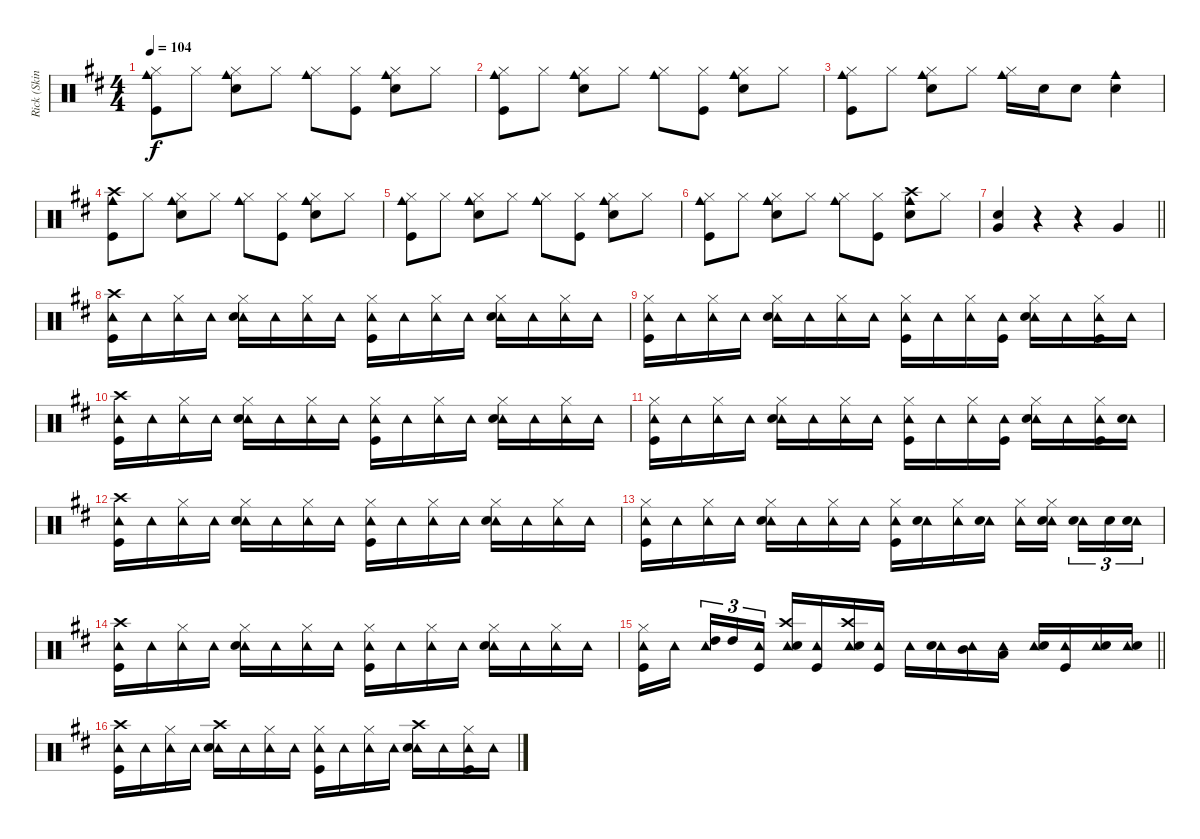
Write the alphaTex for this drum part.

\track ("Rick (Skins)" "Rick (Skin") {instrument percussion}
\staff {score}
\articulation defaults
\ts (4 4)
\tempo 104
\clef neutral
\ks d
("Cowbell medium (hit)" "Hi-Hat (closed)" "Kick (hit)").8{dy f} "Hi-Hat (closed)".8 ("Cowbell medium (hit)" "Hi-Hat (closed)" "Snare (hit) 2").8 "Hi-Hat (closed)".8 ("Cowbell medium (hit)" "Hi-Hat (closed)").8 ("Hi-Hat (closed)" "Kick (hit)").8 ("Cowbell medium (hit)" "Hi-Hat (closed)" "Snare (hit) 2").8 "Hi-Hat (closed)".8 |
("Cowbell medium (hit)" "Hi-Hat (closed)" "Kick (hit)").8 "Hi-Hat (closed)".8 ("Cowbell medium (hit)" "Hi-Hat (closed)" "Snare (hit) 2").8 "Hi-Hat (closed)".8 ("Cowbell medium (hit)" "Hi-Hat (closed)").8 ("Hi-Hat (closed)" "Kick (hit)").8 ("Cowbell medium (hit)" "Hi-Hat (closed)" "Snare (hit) 2").8 "Hi-Hat (closed)".8 |
("Cowbell medium (hit)" "Hi-Hat (closed)" "Kick (hit)").8 "Hi-Hat (closed)".8 ("Cowbell medium (hit)" "Hi-Hat (closed)" "Snare (hit) 2").8 "Hi-Hat (closed)".8 ("Cowbell medium (hit)" "Hi-Hat (closed)").16 "Snare (hit) 2".16 "Snare (hit) 2".8 ("Cowbell medium (hit)" "Snare (hit) 2").4 |
("Cowbell medium (hit)" "Crash high (hit)" "Kick (hit)").8 "Hi-Hat (closed)".8 ("Cowbell medium (hit)" "Hi-Hat (closed)" "Snare (hit) 2").8 "Hi-Hat (closed)".8 ("Cowbell medium (hit)" "Hi-Hat (closed)").8 ("Hi-Hat (closed)" "Kick (hit)").8 ("Cowbell medium (hit)" "Hi-Hat (closed)" "Snare (hit) 2").8 "Hi-Hat (closed)".8 |
("Cowbell medium (hit)" "Hi-Hat (closed)" "Kick (hit)").8 "Hi-Hat (closed)".8 ("Cowbell medium (hit)" "Hi-Hat (closed)" "Snare (hit) 2").8 "Hi-Hat (closed)".8 ("Cowbell medium (hit)" "Hi-Hat (closed)").8 ("Hi-Hat (closed)" "Kick (hit)").8 ("Cowbell medium (hit)" "Hi-Hat (closed)" "Snare (hit) 2").8 "Hi-Hat (closed)".8 |
("Cowbell medium (hit)" "Hi-Hat (closed)" "Kick (hit)").8 "Hi-Hat (closed)".8 ("Cowbell medium (hit)" "Hi-Hat (closed)" "Snare (hit) 2").8 "Hi-Hat (closed)".8 ("Cowbell medium (hit)" "Hi-Hat (closed)").8 ("Hi-Hat (closed)" "Kick (hit)").8 ("Cowbell medium (hit)" "Crash high (hit)" "Snare (hit) 2").8 "Hi-Hat (closed)".8 |
\barLineRight lightlight
("Snare (hit) 2" "Very Low Tom (hit)").4 r.4 r.4 "Very Low Tom (hit)".4 |
("Tambourine (hit)" "Crash high (hit)" "Kick (hit)").16 "Tambourine (hit)".16 ("Tambourine (hit)" "Hi-Hat (closed)").16 "Tambourine (hit)".16 ("Tambourine (hit)" "Hi-Hat (closed)" "Snare (hit) 2").16 "Tambourine (hit)".16 ("Tambourine (hit)" "Hi-Hat (closed)").16 "Tambourine (hit)".16 ("Tambourine (hit)" "Hi-Hat (closed)" "Kick (hit)").16 "Tambourine (hit)".16 ("Tambourine (hit)" "Hi-Hat (closed)").16 "Tambourine (hit)".16 ("Tambourine (hit)" "Hi-Hat (closed)" "Snare (hit) 2").16 "Tambourine (hit)".16 ("Tambourine (hit)" "Hi-Hat (closed)").16 "Tambourine (hit)".16 |
("Tambourine (hit)" "Hi-Hat (closed)" "Kick (hit)").16 "Tambourine (hit)".16 ("Tambourine (hit)" "Hi-Hat (closed)").16 "Tambourine (hit)".16 ("Tambourine (hit)" "Hi-Hat (closed)" "Snare (hit) 2").16 "Tambourine (hit)".16 ("Tambourine (hit)" "Hi-Hat (closed)").16 "Tambourine (hit)".16 ("Tambourine (hit)" "Hi-Hat (closed)" "Kick (hit)").16 "Tambourine (hit)".16 ("Tambourine (hit)" "Hi-Hat (closed)").16 ("Tambourine (hit)" "Kick (hit)").16 ("Tambourine (hit)" "Hi-Hat (closed)" "Snare (hit) 2").16 "Tambourine (hit)".16 ("Tambourine (hit)" "Hi-Hat (closed)" "Kick (hit)").16 "Tambourine (hit)".16 |
("Tambourine (hit)" "Crash high (hit)" "Kick (hit)").16 "Tambourine (hit)".16 ("Tambourine (hit)" "Hi-Hat (closed)").16 "Tambourine (hit)".16 ("Tambourine (hit)" "Hi-Hat (closed)" "Snare (hit) 2").16 "Tambourine (hit)".16 ("Tambourine (hit)" "Hi-Hat (closed)").16 "Tambourine (hit)".16 ("Tambourine (hit)" "Hi-Hat (closed)" "Kick (hit)").16 "Tambourine (hit)".16 ("Tambourine (hit)" "Hi-Hat (closed)").16 "Tambourine (hit)".16 ("Tambourine (hit)" "Hi-Hat (closed)" "Snare (hit) 2").16 "Tambourine (hit)".16 ("Tambourine (hit)" "Hi-Hat (closed)").16 "Tambourine (hit)".16 |
("Tambourine (hit)" "Hi-Hat (closed)" "Kick (hit)").16 "Tambourine (hit)".16 ("Tambourine (hit)" "Hi-Hat (closed)").16 "Tambourine (hit)".16 ("Tambourine (hit)" "Hi-Hat (closed)" "Snare (hit) 2").16 "Tambourine (hit)".16 ("Tambourine (hit)" "Hi-Hat (closed)").16 "Tambourine (hit)".16 ("Tambourine (hit)" "Hi-Hat (closed)" "Kick (hit)").16 "Tambourine (hit)".16 ("Tambourine (hit)" "Hi-Hat (closed)").16 ("Tambourine (hit)" "Kick (hit)").16 ("Tambourine (hit)" "Hi-Hat (closed)" "Snare (hit) 2").16 "Tambourine (hit)".16 ("Tambourine (hit)" "Hi-Hat (closed)" "Kick (hit)").16 ("Tambourine (hit)" "Snare (hit) 2").16 |
("Tambourine (hit)" "Crash high (hit)" "Kick (hit)").16 "Tambourine (hit)".16 ("Tambourine (hit)" "Hi-Hat (closed)").16 "Tambourine (hit)".16 ("Tambourine (hit)" "Hi-Hat (closed)" "Snare (hit) 2").16 "Tambourine (hit)".16 ("Tambourine (hit)" "Hi-Hat (closed)").16 "Tambourine (hit)".16 ("Tambourine (hit)" "Hi-Hat (closed)" "Kick (hit)").16 "Tambourine (hit)".16 ("Tambourine (hit)" "Hi-Hat (closed)").16 "Tambourine (hit)".16 ("Tambourine (hit)" "Hi-Hat (closed)" "Snare (hit) 2").16 "Tambourine (hit)".16 ("Tambourine (hit)" "Hi-Hat (closed)").16 "Tambourine (hit)".16 |
("Tambourine (hit)" "Hi-Hat (closed)" "Kick (hit)").16 "Tambourine (hit)".16 ("Tambourine (hit)" "Hi-Hat (closed)").16 "Tambourine (hit)".16 ("Tambourine (hit)" "Hi-Hat (closed)" "Snare (hit) 2").16 "Tambourine (hit)".16 ("Tambourine (hit)" "Hi-Hat (closed)").16 "Tambourine (hit)".16 ("Tambourine (hit)" "Hi-Hat (closed)" "Kick (hit)").16 ("Tambourine (hit)" "Snare (hit) 2").16 ("Tambourine (hit)" "Hi-Hat (closed)").16 ("Tambourine (hit)" "Snare (hit) 2").16 ("Tambourine (hit)" "Hi-Hat (closed)").16 ("Tambourine (hit)" "Hi-Hat (closed)" "Snare (hit) 2").16{beam splitsecondary} ("Tambourine (hit)" "Snare (hit) 2").16{tu (3 2)} "Snare (hit) 2".16{tu (3 2)} ("Tambourine (hit)" "Snare (hit) 2").16{tu (3 2)} |
("Tambourine (hit)" "Crash high (hit)" "Kick (hit)").16 "Tambourine (hit)".16 ("Tambourine (hit)" "Hi-Hat (closed)").16 "Tambourine (hit)".16 ("Tambourine (hit)" "Hi-Hat (closed)" "Snare (hit) 2").16 "Tambourine (hit)".16 ("Tambourine (hit)" "Hi-Hat (closed)").16 "Tambourine (hit)".16 ("Tambourine (hit)" "Hi-Hat (closed)" "Kick (hit)").16 "Tambourine (hit)".16 ("Tambourine (hit)" "Hi-Hat (closed)").16 "Tambourine (hit)".16 ("Tambourine (hit)" "Hi-Hat (closed)" "Snare (hit) 2").16 "Tambourine (hit)".16 ("Tambourine (hit)" "Hi-Hat (closed)").16 "Tambourine (hit)".16 |
\barLineRight lightlight
("Tambourine (hit)" "Hi-Hat (closed)" "Kick (hit)").16 "Tambourine (hit)".16{beam splitsecondary} ("Tambourine (hit)" "High Tom (hit)").16{tu (3 2)} "High Tom (hit)".16{tu (3 2)} ("Tambourine (hit)" "Kick (hit)").16{tu (3 2)} ("Tambourine (hit)" "Crash high (hit)" "Snare (hit) 2").16 ("Tambourine (hit)" "Kick (hit)").16 ("Tambourine (hit)" "Crash high (hit)" "Snare (hit) 2").16 ("Tambourine (hit)" "Kick (hit)").16 "Tambourine (hit)".16 ("Tambourine (hit)" "Snare (hit) 2").16 ("Tambourine (hit)" "Mid Tom (hit)").16 ("Tambourine (hit)" "Low Tom (hit)").16 ("Tambourine (hit)" "Snare (hit) 2").16 ("Tambourine (hit)" "Kick (hit)").16 ("Tambourine (hit)" "Snare (hit) 2").16 ("Tambourine (hit)" "Snare (hit) 2").16 |
("Tambourine (hit)" "Crash high (hit)" "Kick (hit)").16 "Tambourine (hit)".16 ("Tambourine (hit)" "Hi-Hat (closed)").16 "Tambourine (hit)".16 ("Tambourine (hit)" "Crash high (hit)" "Snare (hit) 2").16 "Tambourine (hit)".16 ("Tambourine (hit)" "Hi-Hat (closed)").16 "Tambourine (hit)".16 ("Tambourine (hit)" "Hi-Hat (closed)" "Kick (hit)").16 "Tambourine (hit)".16 ("Tambourine (hit)" "Hi-Hat (closed)").16 "Tambourine (hit)".16 ("Tambourine (hit)" "Crash high (hit)" "Snare (hit) 2").16 "Tambourine (hit)".16 ("Tambourine (hit)" "Hi-Hat (closed)" "Kick (hit)").16 "Tambourine (hit)".16
